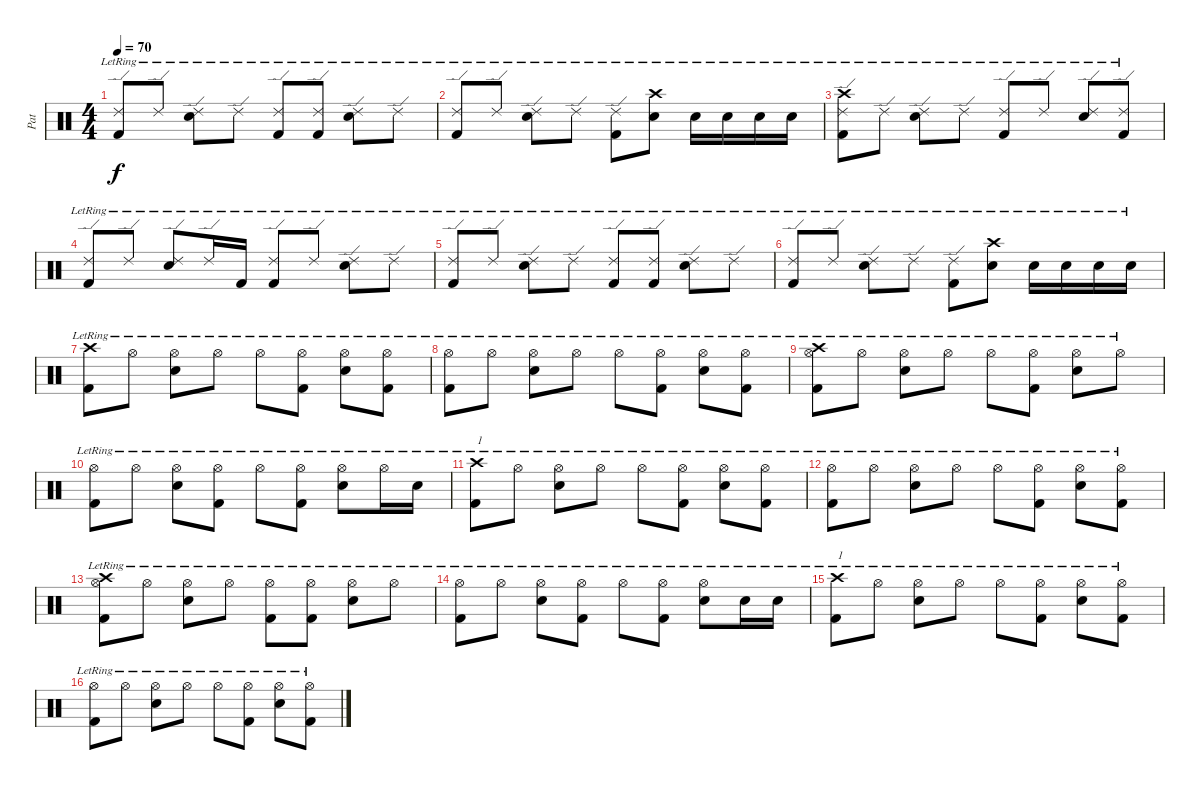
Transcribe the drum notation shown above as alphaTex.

\track ("Pat" "Pat") {instrument percussion}
\staff {score}
\articulation defaults
\ts (4 4)
\tempo 70
\clef neutral
\ks c
("Ride (edge) 2"{lr} "Kick (hit) 2"{lr}).8{dy f} "Ride (edge) 2"{lr}.8 ("Ride (edge) 2"{lr} "Electric Snare (hit)"{lr}).8 "Ride (edge) 2"{lr}.8 ("Ride (edge) 2"{lr} "Kick (hit) 2"{lr}).8 ("Ride (edge) 2"{lr} "Kick (hit) 2"{lr}).8 ("Ride (edge) 2"{lr} "Electric Snare (hit)"{lr}).8 "Ride (edge) 2"{lr}.8 |
("Ride (edge) 2"{lr} "Kick (hit) 2"{lr}).8 "Ride (edge) 2"{lr}.8 ("Ride (edge) 2"{lr} "Electric Snare (hit)"{lr}).8 "Ride (edge) 2"{lr}.8 ("Ride (edge) 2"{lr} "Kick (hit) 2"{lr}).8 ("Crash high (hit)"{lr} "Electric Snare (hit)"{lr}).8 "Electric Snare (hit)"{lr}.16 "Electric Snare (hit)"{lr}.16 "Electric Snare (hit)"{lr}.16 "Electric Snare (hit)"{lr}.16 |
("Crash high (hit)"{lr} "Ride (edge) 2"{lr} "Kick (hit) 2"{lr}).8 "Ride (edge) 2"{lr}.8 ("Ride (edge) 2"{lr} "Electric Snare (hit)"{lr}).8 "Ride (edge) 2"{lr}.8 ("Ride (edge) 2"{lr} "Kick (hit) 2"{lr}).8 "Ride (edge) 2"{lr}.8 ("Ride (edge) 2"{lr} "Electric Snare (hit)"{lr}).8 ("Ride (edge) 2"{lr} "Kick (hit) 2"{lr}).8 |
("Ride (edge) 2"{lr} "Kick (hit) 2"{lr}).8 "Ride (edge) 2"{lr}.8 ("Ride (edge) 2"{lr} "Electric Snare (hit)"{lr}).8 "Ride (edge) 2"{lr}.16 "Kick (hit) 2"{lr}.16 ("Ride (edge) 2"{lr} "Kick (hit) 2"{lr}).8 "Ride (edge) 2"{lr}.8 ("Ride (edge) 2"{lr} "Electric Snare (hit)"{lr}).8 "Ride (edge) 2"{lr}.8 |
("Ride (edge) 2"{lr} "Kick (hit) 2"{lr}).8 "Ride (edge) 2"{lr}.8 ("Ride (edge) 2"{lr} "Electric Snare (hit)"{lr}).8 "Ride (edge) 2"{lr}.8 ("Ride (edge) 2"{lr} "Kick (hit) 2"{lr}).8 ("Ride (edge) 2"{lr} "Kick (hit) 2"{lr}).8 ("Ride (edge) 2"{lr} "Electric Snare (hit)"{lr}).8 "Ride (edge) 2"{lr}.8 |
("Ride (edge) 2"{lr} "Kick (hit) 2"{lr}).8 "Ride (edge) 2"{lr}.8 ("Ride (edge) 2"{lr} "Electric Snare (hit)"{lr}).8 "Ride (edge) 2"{lr}.8 ("Ride (edge) 2"{lr} "Kick (hit) 2"{lr}).8 ("Crash high (hit)"{lr} "Electric Snare (hit)"{lr}).8 "Electric Snare (hit)"{lr}.16 "Electric Snare (hit)"{lr}.16 "Electric Snare (hit)"{lr}.16 "Electric Snare (hit)"{lr}.16 |
("Crash high (hit)"{lr} "Kick (hit) 2"{lr}).8 "Hi-Hat (open)"{lr}.8 ("Hi-Hat (open)"{lr} "Electric Snare (hit)"{lr}).8 "Hi-Hat (open)"{lr}.8 "Hi-Hat (open)"{lr}.8 ("Hi-Hat (open)"{lr} "Kick (hit) 2"{lr}).8 ("Hi-Hat (open)"{lr} "Electric Snare (hit)"{lr}).8 ("Hi-Hat (open)"{lr} "Kick (hit) 2"{lr}).8 |
("Hi-Hat (open)"{lr} "Kick (hit) 2"{lr}).8 "Hi-Hat (open)"{lr}.8 ("Hi-Hat (open)"{lr} "Electric Snare (hit)"{lr}).8 "Hi-Hat (open)"{lr}.8 "Hi-Hat (open)"{lr}.8 ("Hi-Hat (open)"{lr} "Kick (hit) 2"{lr}).8 ("Hi-Hat (open)"{lr} "Electric Snare (hit)"{lr}).8 ("Hi-Hat (open)"{lr} "Kick (hit) 2"{lr}).8 |
("Crash high (hit)"{lr} "Hi-Hat (open)"{lr} "Kick (hit) 2"{lr}).8 "Hi-Hat (open)"{lr}.8 ("Hi-Hat (open)"{lr} "Electric Snare (hit)"{lr}).8 "Hi-Hat (open)"{lr}.8 "Hi-Hat (open)"{lr}.8 ("Hi-Hat (open)"{lr} "Kick (hit) 2"{lr}).8 ("Hi-Hat (open)"{lr} "Electric Snare (hit)"{lr}).8 "Hi-Hat (open)"{lr}.8 |
("Hi-Hat (open)"{lr} "Kick (hit) 2"{lr}).8 "Hi-Hat (open)"{lr}.8 ("Hi-Hat (open)"{lr} "Electric Snare (hit)"{lr}).8 ("Hi-Hat (open)"{lr} "Kick (hit) 2"{lr}).8 "Hi-Hat (open)"{lr}.8 ("Hi-Hat (open)"{lr} "Kick (hit) 2"{lr}).8 ("Hi-Hat (open)"{lr} "Electric Snare (hit)"{lr}).8 "Hi-Hat (open)"{lr}.16 "Electric Snare (hit)"{lr}.16 |
("Crash high (hit)"{lr} "Kick (hit) 2"{lr}).8{txt "1"} "Hi-Hat (open)"{lr}.8 ("Hi-Hat (open)"{lr} "Electric Snare (hit)"{lr}).8 "Hi-Hat (open)"{lr}.8 "Hi-Hat (open)"{lr}.8 ("Hi-Hat (open)"{lr} "Kick (hit) 2"{lr}).8 ("Hi-Hat (open)"{lr} "Electric Snare (hit)"{lr}).8 ("Hi-Hat (open)"{lr} "Kick (hit) 2"{lr}).8 |
("Hi-Hat (open)"{lr} "Kick (hit) 2"{lr}).8 "Hi-Hat (open)"{lr}.8 ("Hi-Hat (open)"{lr} "Electric Snare (hit)"{lr}).8 "Hi-Hat (open)"{lr}.8 "Hi-Hat (open)"{lr}.8 ("Hi-Hat (open)"{lr} "Kick (hit) 2"{lr}).8 ("Hi-Hat (open)"{lr} "Electric Snare (hit)"{lr}).8 ("Hi-Hat (open)"{lr} "Kick (hit) 2"{lr}).8 |
("Crash high (hit)"{lr} "Hi-Hat (open)"{lr} "Kick (hit) 2"{lr}).8 "Hi-Hat (open)"{lr}.8 ("Hi-Hat (open)"{lr} "Electric Snare (hit)"{lr}).8 "Hi-Hat (open)"{lr}.8 ("Hi-Hat (open)"{lr} "Kick (hit) 2"{lr}).8 ("Hi-Hat (open)"{lr} "Kick (hit) 2"{lr}).8 ("Hi-Hat (open)"{lr} "Electric Snare (hit)"{lr}).8 "Hi-Hat (open)"{lr}.8 |
("Hi-Hat (open)"{lr} "Kick (hit) 2"{lr}).8 "Hi-Hat (open)"{lr}.8 ("Hi-Hat (open)"{lr} "Electric Snare (hit)"{lr}).8 ("Hi-Hat (open)"{lr} "Kick (hit) 2"{lr}).8 "Hi-Hat (open)"{lr}.8 ("Hi-Hat (open)"{lr} "Kick (hit) 2"{lr}).8 ("Hi-Hat (open)"{lr} "Electric Snare (hit)"{lr}).8 "Electric Snare (hit)"{lr}.16 "Electric Snare (hit)"{lr}.16 |
("Crash high (hit)"{lr} "Kick (hit) 2"{lr}).8{txt "1"} "Hi-Hat (open)"{lr}.8 ("Hi-Hat (open)"{lr} "Electric Snare (hit)"{lr}).8 "Hi-Hat (open)"{lr}.8 "Hi-Hat (open)"{lr}.8 ("Hi-Hat (open)"{lr} "Kick (hit) 2"{lr}).8 ("Hi-Hat (open)"{lr} "Electric Snare (hit)"{lr}).8 ("Hi-Hat (open)"{lr} "Kick (hit) 2"{lr}).8 |
("Hi-Hat (open)"{lr} "Kick (hit) 2"{lr}).8 "Hi-Hat (open)"{lr}.8 ("Hi-Hat (open)"{lr} "Electric Snare (hit)"{lr}).8 "Hi-Hat (open)"{lr}.8 "Hi-Hat (open)"{lr}.8 ("Hi-Hat (open)"{lr} "Kick (hit) 2"{lr}).8 ("Hi-Hat (open)"{lr} "Electric Snare (hit)"{lr}).8 ("Hi-Hat (open)"{lr} "Kick (hit) 2"{lr}).8
